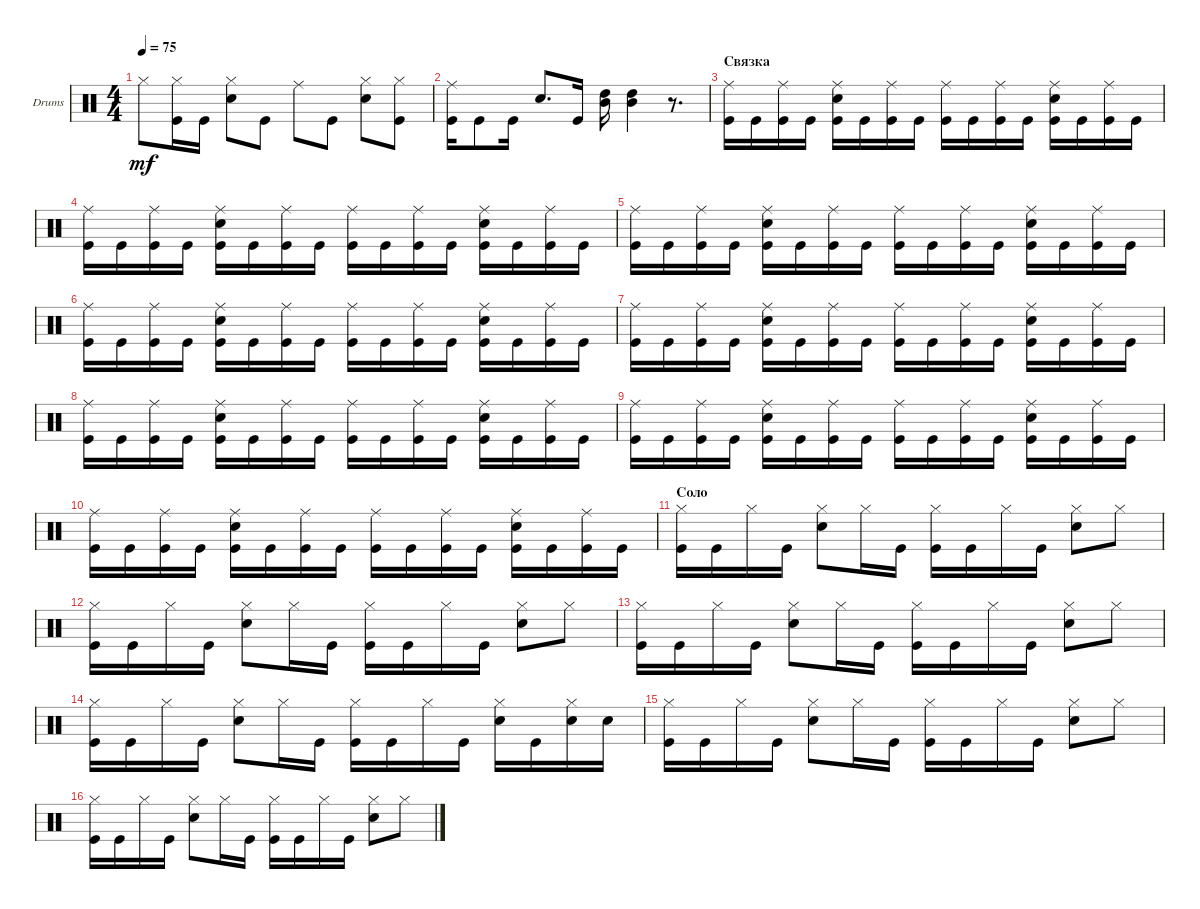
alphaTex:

\defaultSystemsLayout 4
\bracketExtendMode groupsimilarinstruments
\firstSystemTrackNameOrientation horizontal
\otherSystemsTrackNameOrientation horizontal
\track ("Барабаны" "Drums") {solo instrument percussion}
\staff {score}
\articulation defaults
\ts (4 4)
\tempo 75
\clef neutral
\scale
0.333333
\ks c "Hi-Hat (closed)".8{dy mf}
("Kick (hit)" "Hi-Hat (closed)").16 "Kick (hit)".16 ("Snare (hit) 2" "Hi-Hat (closed)").8 "Kick (hit)".8 "Ride (middle)".8 "Kick (hit)".8 ("Snare (hit) 2" "Hi-Hat (closed)").8 ("Kick (hit)" "Hi-Hat (closed)").8 |
\scale
0.333333 ("Kick (hit)" "Ride (middle)").16 "Kick (hit)".8 "Kick (hit)".16 "Snare (hit) 2".8{d} "Kick (hit)".16 ("High Tom (hit)" "Mid Tom (hit)").16 ("Mid Tom (hit)" "High Tom (hit)").4 r.8{d} |
\section ("" "Связка")
\scale
0.333333 ("Kick (hit)" "Ride (middle)").16 "Kick (hit)".16 ("Kick (hit)" "Ride (middle)").16 "Kick (hit)".16 ("Kick (hit)" "Snare (hit) 2" "Ride (middle)").16 "Kick (hit)".16 ("Kick (hit)" "Ride (middle)").16 "Kick (hit)".16 ("Kick (hit)" "Ride (middle)").16 "Kick (hit)".16 ("Kick (hit)" "Ride (middle)").16 "Kick (hit)".16 ("Kick (hit)" "Snare (hit) 2" "Ride (middle)").16 "Kick (hit)".16 ("Kick (hit)" "Ride (middle)").16 "Kick (hit)".16 |
\scale
0.333333 ("Kick (hit)" "Ride (middle)").16 "Kick (hit)".16 ("Kick (hit)" "Ride (middle)").16 "Kick (hit)".16 ("Kick (hit)" "Snare (hit) 2" "Ride (middle)").16 "Kick (hit)".16 ("Kick (hit)" "Ride (middle)").16 "Kick (hit)".16 ("Kick (hit)" "Ride (middle)").16 "Kick (hit)".16 ("Kick (hit)" "Ride (middle)").16 "Kick (hit)".16 ("Kick (hit)" "Snare (hit) 2" "Ride (middle)").16 "Kick (hit)".16 ("Kick (hit)" "Ride (middle)").16 "Kick (hit)".16 |
\scale
0.333333 ("Kick (hit)" "Ride (middle)").16 "Kick (hit)".16 ("Kick (hit)" "Ride (middle)").16 "Kick (hit)".16 ("Kick (hit)" "Snare (hit) 2" "Ride (middle)").16 "Kick (hit)".16 ("Kick (hit)" "Ride (middle)").16 "Kick (hit)".16 ("Kick (hit)" "Ride (middle)").16 "Kick (hit)".16 ("Kick (hit)" "Ride (middle)").16 "Kick (hit)".16 ("Kick (hit)" "Snare (hit) 2" "Ride (middle)").16 "Kick (hit)".16 ("Kick (hit)" "Ride (middle)").16 "Kick (hit)".16 |
\scale
0.333333 ("Kick (hit)" "Ride (middle)").16 "Kick (hit)".16 ("Kick (hit)" "Ride (middle)").16 "Kick (hit)".16 ("Kick (hit)" "Snare (hit) 2" "Ride (middle)").16 "Kick (hit)".16 ("Kick (hit)" "Ride (middle)").16 "Kick (hit)".16 ("Kick (hit)" "Ride (middle)").16 "Kick (hit)".16 ("Kick (hit)" "Ride (middle)").16 "Kick (hit)".16 ("Kick (hit)" "Snare (hit) 2" "Ride (middle)").16 "Kick (hit)".16 ("Kick (hit)" "Ride (middle)").16 "Kick (hit)".16 |
\scale
0.333333 ("Kick (hit)" "Ride (middle)").16 "Kick (hit)".16 ("Kick (hit)" "Ride (middle)").16 "Kick (hit)".16 ("Kick (hit)" "Snare (hit) 2" "Ride (middle)").16 "Kick (hit)".16 ("Kick (hit)" "Ride (middle)").16 "Kick (hit)".16 ("Kick (hit)" "Ride (middle)").16 "Kick (hit)".16 ("Kick (hit)" "Ride (middle)").16 "Kick (hit)".16 ("Kick (hit)" "Snare (hit) 2" "Ride (middle)").16 "Kick (hit)".16 ("Kick (hit)" "Ride (middle)").16 "Kick (hit)".16 |
\scale
0.333333 ("Kick (hit)" "Ride (middle)").16 "Kick (hit)".16 ("Kick (hit)" "Ride (middle)").16 "Kick (hit)".16 ("Kick (hit)" "Snare (hit) 2" "Ride (middle)").16 "Kick (hit)".16 ("Kick (hit)" "Ride (middle)").16 "Kick (hit)".16 ("Kick (hit)" "Ride (middle)").16 "Kick (hit)".16 ("Kick (hit)" "Ride (middle)").16 "Kick (hit)".16 ("Kick (hit)" "Snare (hit) 2" "Ride (middle)").16 "Kick (hit)".16 ("Kick (hit)" "Ride (middle)").16 "Kick (hit)".16 |
\scale
0.333333 ("Kick (hit)" "Ride (middle)").16 "Kick (hit)".16 ("Kick (hit)" "Ride (middle)").16 "Kick (hit)".16 ("Kick (hit)" "Snare (hit) 2" "Ride (middle)").16 "Kick (hit)".16 ("Kick (hit)" "Ride (middle)").16 "Kick (hit)".16 ("Kick (hit)" "Ride (middle)").16 "Kick (hit)".16 ("Kick (hit)" "Ride (middle)").16 "Kick (hit)".16 ("Kick (hit)" "Snare (hit) 2" "Ride (middle)").16 "Kick (hit)".16 ("Kick (hit)" "Ride (middle)").16 "Kick (hit)".16 |
\scale
0.333333 ("Kick (hit)" "Ride (middle)").16 "Kick (hit)".16 ("Kick (hit)" "Ride (middle)").16 "Kick (hit)".16 ("Kick (hit)" "Snare (hit) 2" "Ride (middle)").16 "Kick (hit)".16 ("Kick (hit)" "Ride (middle)").16 "Kick (hit)".16 ("Kick (hit)" "Ride (middle)").16 "Kick (hit)".16 ("Kick (hit)" "Ride (middle)").16 "Kick (hit)".16 ("Kick (hit)" "Snare (hit) 2" "Ride (middle)").16 "Kick (hit)".16 ("Kick (hit)" "Ride (middle)").16 "Kick (hit)".16 |
\section ("" "Соло")
\scale
0.333333 ("Kick (hit)" "Hi-Hat (closed)").16 "Kick (hit)".16 "Hi-Hat (closed)".16 "Kick (hit)".16 ("Snare (hit) 2" "Hi-Hat (closed)").8 "Hi-Hat (closed)".16 "Kick (hit)".16 ("Kick (hit)" "Hi-Hat (closed)").16 "Kick (hit)".16 "Hi-Hat (closed)".16 "Kick (hit)".16 ("Snare (hit) 2" "Hi-Hat (closed)").8 "Hi-Hat (closed)".8 |
\scale
0.333333 ("Kick (hit)" "Hi-Hat (closed)").16 "Kick (hit)".16 "Hi-Hat (closed)".16 "Kick (hit)".16 ("Snare (hit) 2" "Hi-Hat (closed)").8 "Hi-Hat (closed)".16 "Kick (hit)".16 ("Kick (hit)" "Hi-Hat (closed)").16 "Kick (hit)".16 "Hi-Hat (closed)".16 "Kick (hit)".16 ("Snare (hit) 2" "Hi-Hat (closed)").8 "Hi-Hat (closed)".8 |
\scale
0.333333 ("Kick (hit)" "Hi-Hat (closed)").16 "Kick (hit)".16 "Hi-Hat (closed)".16 "Kick (hit)".16 ("Snare (hit) 2" "Hi-Hat (closed)").8 "Hi-Hat (closed)".16 "Kick (hit)".16 ("Kick (hit)" "Hi-Hat (closed)").16 "Kick (hit)".16 "Hi-Hat (closed)".16 "Kick (hit)".16 ("Snare (hit) 2" "Hi-Hat (closed)").8 "Hi-Hat (closed)".8 |
("Kick (hit)" "Hi-Hat (closed)").16 "Kick (hit)".16 "Hi-Hat (closed)".16 "Kick (hit)".16 ("Snare (hit) 2" "Hi-Hat (closed)").8 "Hi-Hat (closed)".16 "Kick (hit)".16 ("Kick (hit)" "Hi-Hat (closed)").16 "Kick (hit)".16 "Hi-Hat (closed)".16 "Kick (hit)".16 ("Snare (hit) 2" "Hi-Hat (closed)").16 "Kick (hit)".16 ("Hi-Hat (closed)" "Snare (hit) 2").16 "Snare (hit) 2".16 |
("Kick (hit)" "Hi-Hat (closed)").16 "Kick (hit)".16 "Hi-Hat (closed)".16 "Kick (hit)".16 ("Snare (hit) 2" "Hi-Hat (closed)").8 "Hi-Hat (closed)".16 "Kick (hit)".16 ("Kick (hit)" "Hi-Hat (closed)").16 "Kick (hit)".16 "Hi-Hat (closed)".16 "Kick (hit)".16 ("Snare (hit) 2" "Hi-Hat (closed)").8 "Hi-Hat (closed)".8 |
("Kick (hit)" "Hi-Hat (closed)").16 "Kick (hit)".16 "Hi-Hat (closed)".16 "Kick (hit)".16 ("Snare (hit) 2" "Hi-Hat (closed)").8 "Hi-Hat (closed)".16 "Kick (hit)".16 ("Kick (hit)" "Hi-Hat (closed)").16 "Kick (hit)".16 "Hi-Hat (closed)".16 "Kick (hit)".16 ("Snare (hit) 2" "Hi-Hat (closed)").8 "Hi-Hat (closed)".8
